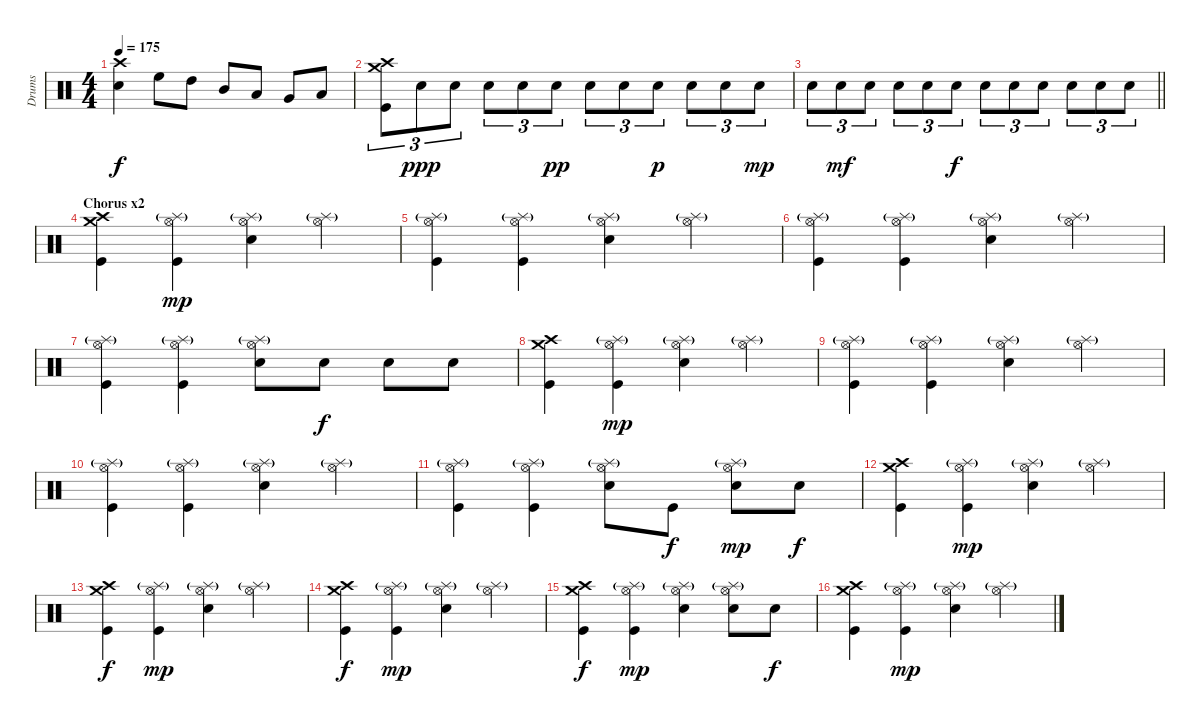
\track ("Drums" "Drums") {instrument percussion}
\staff {score}
\articulation defaults
\ts (4 4)
\tempo 175
\clef neutral
\ks c
("Crash high (hit)" "Electric Snare (hit)").4{dy f} "High Floor Tom (hit)".8 "High Tom (hit)".8 "Mid Tom (hit)".8 "Low Tom (hit)".8 "Very Low Tom (hit)".8 "Low Floor Tom (hit)".8 |
("Crash medium (hit)" "Crash high (hit)" "Kick (hit)").8{tu (3 2)} "Electric Snare (hit)".8{tu (3 2) dy ppp} "Electric Snare (hit)".8{tu (3 2)} "Electric Snare (hit)".8{tu (3 2)} "Electric Snare (hit)".8{tu (3 2)} "Electric Snare (hit)".8{tu (3 2) dy pp} "Electric Snare (hit)".8{tu (3 2)} "Electric Snare (hit)".8{tu (3 2)} "Electric Snare (hit)".8{tu (3 2) dy p} "Electric Snare (hit)".8{tu (3 2)} "Electric Snare (hit)".8{tu (3 2)} "Electric Snare (hit)".8{tu (3 2) dy mp} |
\barLineRight lightlight "Electric Snare (hit)".8{tu (3 2)} "Electric Snare (hit)".8{tu (3 2) dy mf} "Electric Snare (hit)".8{tu (3 2)} "Electric Snare (hit)".8{tu (3 2)} "Electric Snare (hit)".8{tu (3 2)} "Electric Snare (hit)".8{tu (3 2) dy f} "Electric Snare (hit)".8{tu (3 2)} "Electric Snare (hit)".8{tu (3 2)} "Electric Snare (hit)".8{tu (3 2)} "Electric Snare (hit)".8{tu (3 2)} "Electric Snare (hit)".8{tu (3 2)} "Electric Snare (hit)".8{tu (3 2)}
|
\section ("" "Chorus x2")
("Crash medium (hit)" "Crash high (hit)" "Kick (hit)").4 ("Splash (hit)"{g} "Hi-Hat (open)" "Kick (hit)").4{dy mp} ("Splash (hit)"{g} "Hi-Hat (open)" "Electric Snare (hit)").4 ("Splash (hit)"{g} "Hi-Hat (open)").4 |
("Splash (hit)"{g} "Hi-Hat (open)" "Kick (hit)").4 ("Splash (hit)"{g} "Hi-Hat (open)" "Kick (hit)").4 ("Splash (hit)"{g} "Hi-Hat (open)" "Electric Snare (hit)").4 ("Splash (hit)"{g} "Hi-Hat (open)").4 |
("Splash (hit)"{g} "Hi-Hat (open)" "Kick (hit)").4 ("Splash (hit)"{g} "Hi-Hat (open)" "Kick (hit)").4 ("Splash (hit)"{g} "Hi-Hat (open)" "Electric Snare (hit)").4 ("Splash (hit)"{g} "Hi-Hat (open)").4 |
("Splash (hit)"{g} "Hi-Hat (open)" "Kick (hit)").4 ("Splash (hit)"{g} "Hi-Hat (open)" "Kick (hit)").4 ("Splash (hit)"{g} "Hi-Hat (open)" "Electric Snare (hit)").8 "Electric Snare (hit)".8{dy f} "Electric Snare (hit)".8 "Electric Snare (hit)".8 |
("Crash medium (hit)" "Crash high (hit)" "Kick (hit)").4 ("Splash (hit)"{g} "Hi-Hat (open)" "Kick (hit)").4{dy mp} ("Splash (hit)"{g} "Hi-Hat (open)" "Electric Snare (hit)").4 ("Splash (hit)"{g} "Hi-Hat (open)").4 |
("Splash (hit)"{g} "Hi-Hat (open)" "Kick (hit)").4 ("Splash (hit)"{g} "Hi-Hat (open)" "Kick (hit)").4 ("Splash (hit)"{g} "Hi-Hat (open)" "Electric Snare (hit)").4 ("Splash (hit)"{g} "Hi-Hat (open)").4 |
("Splash (hit)"{g} "Hi-Hat (open)" "Kick (hit)").4 ("Splash (hit)"{g} "Hi-Hat (open)" "Kick (hit)").4 ("Splash (hit)"{g} "Hi-Hat (open)" "Electric Snare (hit)").4 ("Splash (hit)"{g} "Hi-Hat (open)").4 |
("Splash (hit)"{g} "Hi-Hat (open)" "Kick (hit)").4 ("Splash (hit)"{g} "Hi-Hat (open)" "Kick (hit)").4 ("Splash (hit)"{g} "Hi-Hat (open)" "Electric Snare (hit)").8 "Kick (hit)".8{dy f} ("Splash (hit)"{g} "Hi-Hat (open)" "Electric Snare (hit)").8{dy mp} "Electric Snare (hit)".8{dy f} |
("Crash medium (hit)" "Crash high (hit)" "Kick (hit)").4 ("Splash (hit)"{g} "Hi-Hat (open)" "Kick (hit)").4{dy mp} ("Splash (hit)"{g} "Hi-Hat (open)" "Electric Snare (hit)").4 ("Splash (hit)"{g} "Hi-Hat (open)").4 |
("Crash medium (hit)" "Crash high (hit)" "Kick (hit)").4{dy f} ("Splash (hit)"{g} "Hi-Hat (open)" "Kick (hit)").4{dy mp} ("Splash (hit)"{g} "Hi-Hat (open)" "Electric Snare (hit)").4 ("Splash (hit)"{g} "Hi-Hat (open)").4 |
("Crash medium (hit)" "Crash high (hit)" "Kick (hit)").4{dy f} ("Splash (hit)"{g} "Hi-Hat (open)" "Kick (hit)").4{dy mp} ("Splash (hit)"{g} "Hi-Hat (open)" "Electric Snare (hit)").4 ("Splash (hit)"{g} "Hi-Hat (open)").4 |
("Crash medium (hit)" "Crash high (hit)" "Kick (hit)").4{dy f} ("Splash (hit)"{g} "Hi-Hat (open)" "Kick (hit)").4{dy mp} ("Splash (hit)"{g} "Hi-Hat (open)" "Electric Snare (hit)").4 ("Splash (hit)"{g} "Hi-Hat (open)" "Electric Snare (hit)").8 "Electric Snare (hit)".8{dy f} |
("Crash medium (hit)" "Crash high (hit)" "Kick (hit)").4 ("Splash (hit)"{g} "Hi-Hat (open)" "Kick (hit)").4{dy mp} ("Splash (hit)"{g} "Hi-Hat (open)" "Electric Snare (hit)").4 ("Splash (hit)"{g} "Hi-Hat (open)").4
